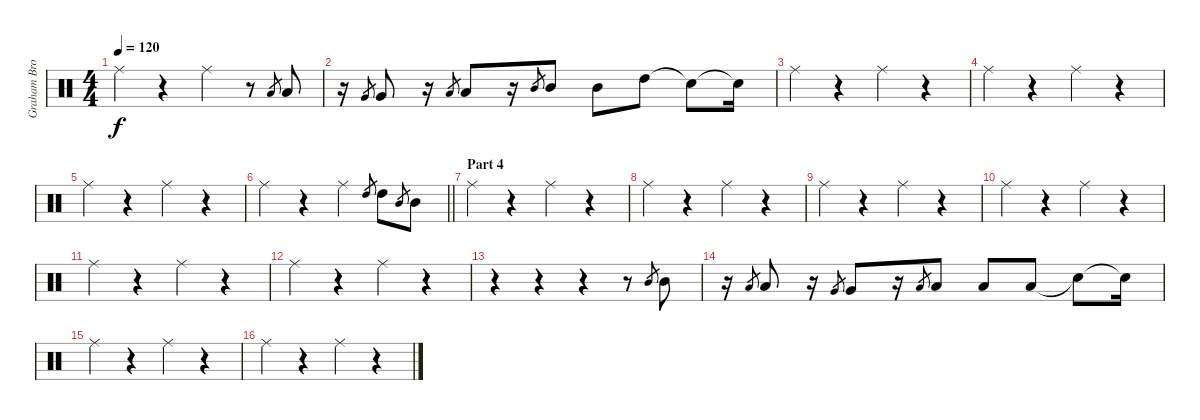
\track ("Graham Broad (Drums)" "Graham Bro") {instrument percussion}
\staff {score}
\articulation defaults
\ts (4 4)
\tempo 120
\clef neutral
\ks c "Ride (middle)".4{dy f}
r.4 "Ride (middle)".4 r.8 "Low Floor Tom (hit)".8{gr} "Low Floor Tom (hit)".8 |
r.16 "Very Low Tom (hit)".8{gr} "Very Low Tom (hit)".8 r.16 "Low Tom (hit)".8{gr} "Low Tom (hit)".8 r.16 "Mid Tom (hit)".8{gr} "Mid Tom (hit)".8 "Mid Tom (hit)".8 "High Tom (hit)".8 "Snare (hit)"{t}.8 "Snare (hit)"{t}.16 |
"Ride (middle)".4 r.4 "Ride (middle)".4 r.4 |
"Ride (middle)".4 r.4 "Ride (middle)".4 r.4 |
"Ride (middle)".4 r.4 "Ride (middle)".4 r.4 |
\barLineRight lightlight "Ride (middle)".4
r.4 "Ride (middle)".4 "High Tom (hit)".8{gr} "High Tom (hit)".8 "Mid Tom (hit)".8{gr} "Mid Tom (hit)".8 |
\section ("" "Part 4")
"Ride (middle)".4 r.4 "Ride (middle)".4 r.4 |
"Ride (middle)".4 r.4 "Ride (middle)".4 r.4 |
"Ride (middle)".4 r.4 "Ride (middle)".4 r.4 |
"Ride (middle)".4 r.4 "Ride (middle)".4 r.4 |
"Ride (middle)".4 r.4 "Ride (middle)".4 r.4 |
"Ride (middle)".4 r.4 "Ride (middle)".4 r.4 |
r.4 r.4 r.4 r.8 "Mid Tom (hit)".8{gr} "Mid Tom (hit)".8 |
r.16 "Low Tom (hit)".8{gr} "Low Tom (hit)".8 r.16 "Very Low Tom (hit)".8{gr} "Very Low Tom (hit)".8 r.16 "Low Floor Tom (hit)".8{gr} "Low Floor Tom (hit)".8 "Low Floor Tom (hit)".8 "Low Floor Tom (hit)".8 "Snare (hit)"{t}.8 "Snare (hit)"{t}.16 |
"Ride (middle)".4 r.4 "Ride (middle)".4 r.4 |
"Ride (middle)".4 r.4 "Ride (middle)".4 r.4
